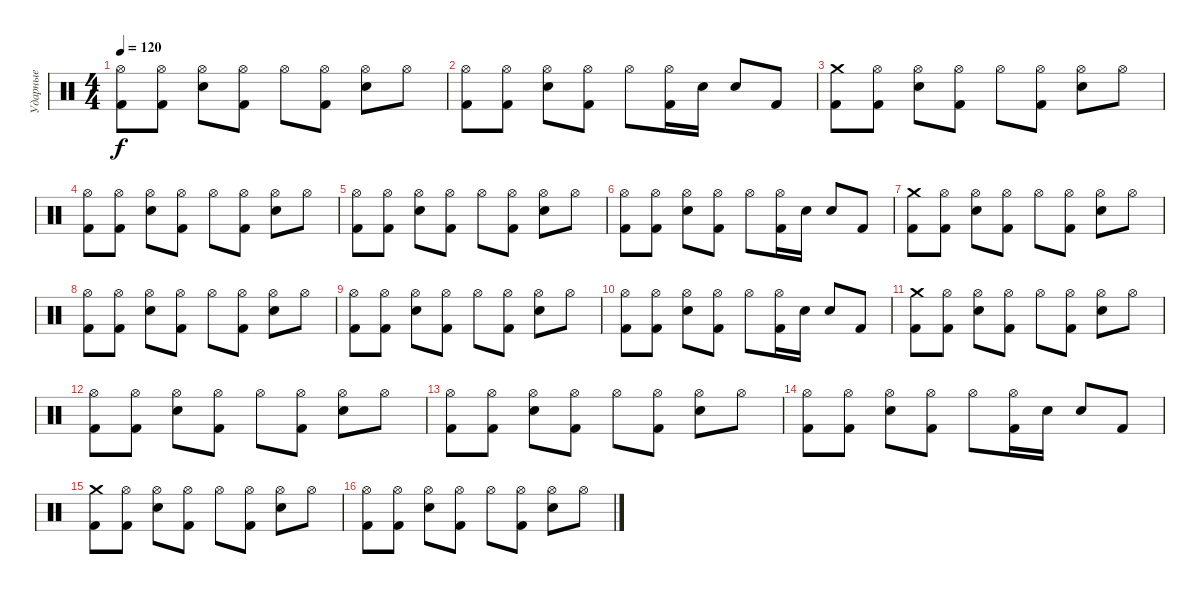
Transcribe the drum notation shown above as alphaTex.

\track ("Ударные" "Ударные") {instrument percussion}
\staff {score}
\articulation defaults
\ts (4 4)
\tempo 120
\clef neutral
\ks c
("Hi-Hat (open)" "Kick (hit) 2").8{dy f} ("Hi-Hat (open)" "Kick (hit) 2").8 ("Hi-Hat (open)" "Snare (hit) 2").8 ("Hi-Hat (open)" "Kick (hit) 2").8 "Hi-Hat (open)".8 ("Hi-Hat (open)" "Kick (hit) 2").8 ("Hi-Hat (open)" "Snare (hit) 2").8 "Hi-Hat (open)".8 |
("Hi-Hat (open)" "Kick (hit) 2").8 ("Hi-Hat (open)" "Kick (hit) 2").8 ("Hi-Hat (open)" "Snare (hit) 2").8 ("Hi-Hat (open)" "Kick (hit) 2").8 "Hi-Hat (open)".8 ("Hi-Hat (open)" "Kick (hit) 2").16 "Snare (hit) 2".16 "Snare (hit) 2".8 "Kick (hit) 2".8 |
("Crash medium (hit)" "Kick (hit) 2").8 ("Hi-Hat (open)" "Kick (hit) 2").8 ("Hi-Hat (open)" "Snare (hit) 2").8 ("Hi-Hat (open)" "Kick (hit) 2").8 "Hi-Hat (open)".8 ("Hi-Hat (open)" "Kick (hit) 2").8 ("Hi-Hat (open)" "Snare (hit) 2").8 "Hi-Hat (open)".8 |
("Hi-Hat (open)" "Kick (hit) 2").8 ("Hi-Hat (open)" "Kick (hit) 2").8 ("Hi-Hat (open)" "Snare (hit) 2").8 ("Hi-Hat (open)" "Kick (hit) 2").8 "Hi-Hat (open)".8 ("Hi-Hat (open)" "Kick (hit) 2").8 ("Hi-Hat (open)" "Snare (hit) 2").8 "Hi-Hat (open)".8 |
("Hi-Hat (open)" "Kick (hit) 2").8 ("Hi-Hat (open)" "Kick (hit) 2").8 ("Hi-Hat (open)" "Snare (hit) 2").8 ("Hi-Hat (open)" "Kick (hit) 2").8 "Hi-Hat (open)".8 ("Hi-Hat (open)" "Kick (hit) 2").8 ("Hi-Hat (open)" "Snare (hit) 2").8 "Hi-Hat (open)".8 |
("Hi-Hat (open)" "Kick (hit) 2").8 ("Hi-Hat (open)" "Kick (hit) 2").8 ("Hi-Hat (open)" "Snare (hit) 2").8 ("Hi-Hat (open)" "Kick (hit) 2").8 "Hi-Hat (open)".8 ("Hi-Hat (open)" "Kick (hit) 2").16 "Snare (hit) 2".16 "Snare (hit) 2".8 "Kick (hit) 2".8 |
("Crash medium (hit)" "Kick (hit) 2").8 ("Hi-Hat (open)" "Kick (hit) 2").8 ("Hi-Hat (open)" "Snare (hit) 2").8 ("Hi-Hat (open)" "Kick (hit) 2").8 "Hi-Hat (open)".8 ("Hi-Hat (open)" "Kick (hit) 2").8 ("Hi-Hat (open)" "Snare (hit) 2").8 "Hi-Hat (open)".8 |
("Hi-Hat (open)" "Kick (hit) 2").8 ("Hi-Hat (open)" "Kick (hit) 2").8 ("Hi-Hat (open)" "Snare (hit) 2").8 ("Hi-Hat (open)" "Kick (hit) 2").8 "Hi-Hat (open)".8 ("Hi-Hat (open)" "Kick (hit) 2").8 ("Hi-Hat (open)" "Snare (hit) 2").8 "Hi-Hat (open)".8 |
("Hi-Hat (open)" "Kick (hit) 2").8 ("Hi-Hat (open)" "Kick (hit) 2").8 ("Hi-Hat (open)" "Snare (hit) 2").8 ("Hi-Hat (open)" "Kick (hit) 2").8 "Hi-Hat (open)".8 ("Hi-Hat (open)" "Kick (hit) 2").8 ("Hi-Hat (open)" "Snare (hit) 2").8 "Hi-Hat (open)".8 |
("Hi-Hat (open)" "Kick (hit) 2").8 ("Hi-Hat (open)" "Kick (hit) 2").8 ("Hi-Hat (open)" "Snare (hit) 2").8 ("Hi-Hat (open)" "Kick (hit) 2").8 "Hi-Hat (open)".8 ("Hi-Hat (open)" "Kick (hit) 2").16 "Snare (hit) 2".16 "Snare (hit) 2".8 "Kick (hit) 2".8 |
("Crash medium (hit)" "Kick (hit) 2").8 ("Hi-Hat (open)" "Kick (hit) 2").8 ("Hi-Hat (open)" "Snare (hit) 2").8 ("Hi-Hat (open)" "Kick (hit) 2").8 "Hi-Hat (open)".8 ("Hi-Hat (open)" "Kick (hit) 2").8 ("Hi-Hat (open)" "Snare (hit) 2").8 "Hi-Hat (open)".8 |
("Hi-Hat (open)" "Kick (hit) 2").8 ("Hi-Hat (open)" "Kick (hit) 2").8 ("Hi-Hat (open)" "Snare (hit) 2").8 ("Hi-Hat (open)" "Kick (hit) 2").8 "Hi-Hat (open)".8 ("Hi-Hat (open)" "Kick (hit) 2").8 ("Hi-Hat (open)" "Snare (hit) 2").8 "Hi-Hat (open)".8 |
("Hi-Hat (open)" "Kick (hit) 2").8 ("Hi-Hat (open)" "Kick (hit) 2").8 ("Hi-Hat (open)" "Snare (hit) 2").8 ("Hi-Hat (open)" "Kick (hit) 2").8 "Hi-Hat (open)".8 ("Hi-Hat (open)" "Kick (hit) 2").8 ("Hi-Hat (open)" "Snare (hit) 2").8 "Hi-Hat (open)".8 |
("Hi-Hat (open)" "Kick (hit) 2").8 ("Hi-Hat (open)" "Kick (hit) 2").8 ("Hi-Hat (open)" "Snare (hit) 2").8 ("Hi-Hat (open)" "Kick (hit) 2").8 "Hi-Hat (open)".8 ("Hi-Hat (open)" "Kick (hit) 2").16 "Snare (hit) 2".16 "Snare (hit) 2".8 "Kick (hit) 2".8 |
("Crash medium (hit)" "Kick (hit) 2").8 ("Hi-Hat (open)" "Kick (hit) 2").8 ("Hi-Hat (open)" "Snare (hit) 2").8 ("Hi-Hat (open)" "Kick (hit) 2").8 "Hi-Hat (open)".8 ("Hi-Hat (open)" "Kick (hit) 2").8 ("Hi-Hat (open)" "Snare (hit) 2").8 "Hi-Hat (open)".8 |
("Hi-Hat (open)" "Kick (hit) 2").8 ("Hi-Hat (open)" "Kick (hit) 2").8 ("Hi-Hat (open)" "Snare (hit) 2").8 ("Hi-Hat (open)" "Kick (hit) 2").8 "Hi-Hat (open)".8 ("Hi-Hat (open)" "Kick (hit) 2").8 ("Hi-Hat (open)" "Snare (hit) 2").8 "Hi-Hat (open)".8
